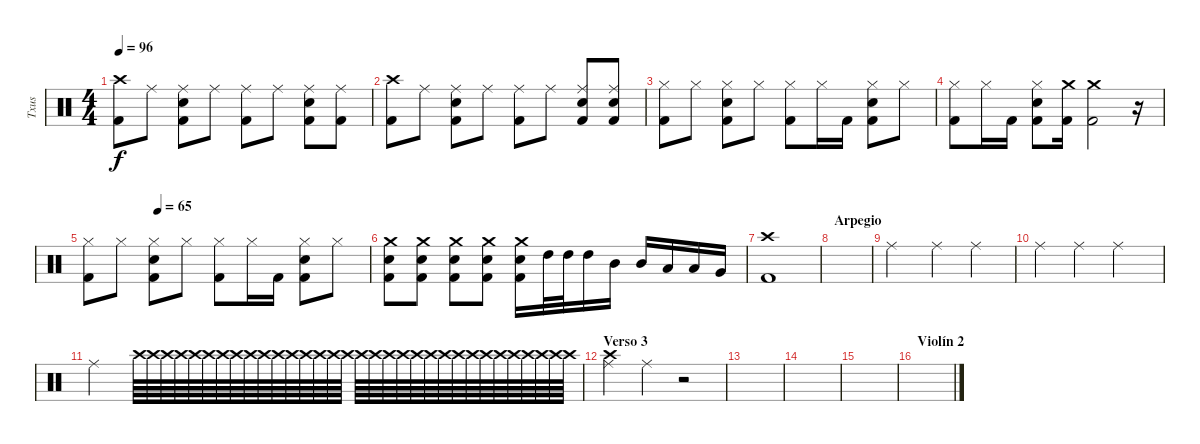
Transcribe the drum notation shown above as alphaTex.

\track ("Txus" "Txus") {instrument percussion}
\staff {score}
\articulation defaults
\ts (4 4)
\tempo 96
\clef neutral
\ks c
("Kick (hit) 2" "Crash high (hit)").8{dy f} "Ride (middle)".8 ("Kick (hit) 2" "Electric Snare (hit)" "Ride (middle)").8 "Ride (middle)".8 ("Kick (hit) 2" "Ride (middle)").8 "Ride (middle)".8 ("Kick (hit) 2" "Electric Snare (hit)" "Ride (middle)").8 ("Kick (hit) 2" "Ride (middle)").8 |
("Kick (hit) 2" "Crash high (hit)").8 "Ride (middle)".8 ("Kick (hit) 2" "Electric Snare (hit)" "Ride (middle)").8 "Ride (middle)".8 ("Kick (hit) 2" "Ride (middle)").8 "Ride (middle)".8 ("Kick (hit) 2" "Electric Snare (hit)" "Ride (middle)").8 ("Kick (hit) 2" "Electric Snare (hit)" "Ride (middle)").8 |
("Kick (hit) 2" "Hi-Hat (closed)").8 "Hi-Hat (closed)".8 ("Kick (hit) 2" "Electric Snare (hit)" "Hi-Hat (closed)").8 "Hi-Hat (closed)".8 ("Kick (hit) 2" "Hi-Hat (closed)").8 "Hi-Hat (closed)".16 "Kick (hit) 2".16 ("Kick (hit) 2" "Electric Snare (hit)" "Hi-Hat (closed)").8 "Hi-Hat (closed)".8 |
("Kick (hit) 2" "Hi-Hat (closed)").8 "Hi-Hat (closed)".16 "Kick (hit) 2".16 ("Kick (hit) 2" "Electric Snare (hit)" "Hi-Hat (closed)").8 ("Kick (hit) 2" "Crash medium (hit)").16 ("Kick (hit) 2" "Crash medium (hit)").2 r.16 |
\tempo (65 0.25)
("Kick (hit) 2" "Hi-Hat (closed)").8 "Hi-Hat (closed)".8 ("Kick (hit) 2" "Electric Snare (hit)" "Hi-Hat (closed)").8 "Hi-Hat (closed)".8 ("Kick (hit) 2" "Hi-Hat (closed)").8 "Hi-Hat (closed)".16 "Kick (hit) 2".16 ("Kick (hit) 2" "Electric Snare (hit)" "Hi-Hat (closed)").8 "Hi-Hat (closed)".8 |
("Kick (hit) 2" "Electric Snare (hit)" "Crash medium (hit)").8{volume 11} ("Kick (hit) 2" "Electric Snare (hit)" "Crash medium (hit)").8 ("Kick (hit) 2" "Electric Snare (hit)" "Crash medium (hit)").8 ("Kick (hit) 2" "Electric Snare (hit)" "Crash medium (hit)").8 ("Kick (hit) 2" "Electric Snare (hit)" "Crash medium (hit)").16 "High Tom (hit)".32{volume 14} "High Tom (hit)".32 "High Tom (hit)".16 "Mid Tom (hit)".16 "Mid Tom (hit)".16 "Low Tom (hit)".16 "Low Tom (hit)".16 "Very Low Tom (hit)".16 |
("Kick (hit) 2" "Crash high (hit)").1 |
\section ("" "Arpegio")
|
"Ride (middle)".2{volume 6} "Ride (middle)".4 "Ride (middle)".4 |
"Ride (middle)".4 "Ride (middle)".4{volume 4} "Ride (middle)".2{volume 6} |
"Ride (middle)".2 "Crash high (hit)".64{volume 1} "Crash high (hit)".64{volume 6} "Crash high (hit)".64 "Crash high (hit)".64 "Crash high (hit)".64 "Crash high (hit)".64 "Crash high (hit)".64 "Crash high (hit)".64 "Crash high (hit)".64 "Crash high (hit)".64 "Crash high (hit)".64 "Crash high (hit)".64 "Crash high (hit)".64 "Crash high (hit)".64 "Crash high (hit)".64 "Crash high (hit)".64 "Crash high (hit)".64 "Crash high (hit)".64 "Crash high (hit)".64 "Crash high (hit)".64 "Crash high (hit)".64 "Crash high (hit)".64 "Crash high (hit)".64 "Crash high (hit)".64 "Crash high (hit)".64 "Crash high (hit)".64 "Crash high (hit)".64 "Crash high (hit)".64 "Crash high (hit)".64 "Crash high (hit)".64 "Crash high (hit)".64 "Crash high (hit)".64 |
\section ("" "Verso 3")
("Crash high (hit)" "Ride (middle)").4 "Ride (middle)".4 r.2 |
|
|
|
\section ("" "Violín 2")
